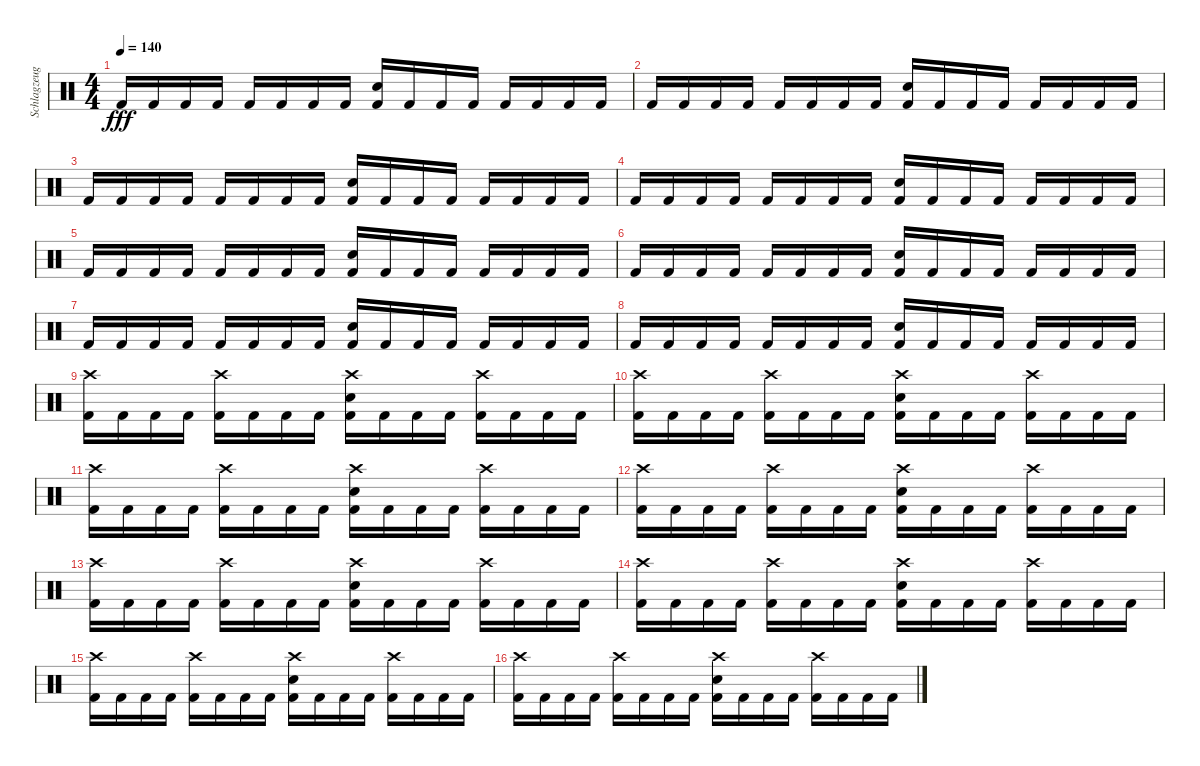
\track ("Schlagzeug" "Schlagzeug") {instrument percussion}
\staff {score}
\articulation defaults
\ts (4 4)
\tempo 140
\clef neutral
\ks c "Kick (hit) 2".16{dy fff} "Kick (hit) 2".16 "Kick (hit) 2".16 "Kick (hit) 2".16 "Kick (hit) 2".16 "Kick (hit) 2".16 "Kick (hit) 2".16 "Kick (hit) 2".16
("Kick (hit) 2" "Electric Snare (hit)").16 "Kick (hit) 2".16 "Kick (hit) 2".16 "Kick (hit) 2".16 "Kick (hit) 2".16 "Kick (hit) 2".16 "Kick (hit) 2".16 "Kick (hit) 2".16 |
"Kick (hit) 2".16 "Kick (hit) 2".16 "Kick (hit) 2".16 "Kick (hit) 2".16 "Kick (hit) 2".16 "Kick (hit) 2".16 "Kick (hit) 2".16 "Kick (hit) 2".16 ("Kick (hit) 2" "Electric Snare (hit)").16 "Kick (hit) 2".16 "Kick (hit) 2".16 "Kick (hit) 2".16 "Kick (hit) 2".16 "Kick (hit) 2".16 "Kick (hit) 2".16 "Kick (hit) 2".16 |
"Kick (hit) 2".16 "Kick (hit) 2".16 "Kick (hit) 2".16 "Kick (hit) 2".16 "Kick (hit) 2".16 "Kick (hit) 2".16 "Kick (hit) 2".16 "Kick (hit) 2".16 ("Kick (hit) 2" "Electric Snare (hit)").16 "Kick (hit) 2".16 "Kick (hit) 2".16 "Kick (hit) 2".16 "Kick (hit) 2".16 "Kick (hit) 2".16 "Kick (hit) 2".16 "Kick (hit) 2".16 |
"Kick (hit) 2".16 "Kick (hit) 2".16 "Kick (hit) 2".16 "Kick (hit) 2".16 "Kick (hit) 2".16 "Kick (hit) 2".16 "Kick (hit) 2".16 "Kick (hit) 2".16 ("Kick (hit) 2" "Electric Snare (hit)").16 "Kick (hit) 2".16 "Kick (hit) 2".16 "Kick (hit) 2".16 "Kick (hit) 2".16 "Kick (hit) 2".16 "Kick (hit) 2".16 "Kick (hit) 2".16 |
"Kick (hit) 2".16 "Kick (hit) 2".16 "Kick (hit) 2".16 "Kick (hit) 2".16 "Kick (hit) 2".16 "Kick (hit) 2".16 "Kick (hit) 2".16 "Kick (hit) 2".16 ("Kick (hit) 2" "Electric Snare (hit)").16 "Kick (hit) 2".16 "Kick (hit) 2".16 "Kick (hit) 2".16 "Kick (hit) 2".16 "Kick (hit) 2".16 "Kick (hit) 2".16 "Kick (hit) 2".16 |
"Kick (hit) 2".16 "Kick (hit) 2".16 "Kick (hit) 2".16 "Kick (hit) 2".16 "Kick (hit) 2".16 "Kick (hit) 2".16 "Kick (hit) 2".16 "Kick (hit) 2".16 ("Kick (hit) 2" "Electric Snare (hit)").16 "Kick (hit) 2".16 "Kick (hit) 2".16 "Kick (hit) 2".16 "Kick (hit) 2".16 "Kick (hit) 2".16 "Kick (hit) 2".16 "Kick (hit) 2".16 |
"Kick (hit) 2".16 "Kick (hit) 2".16 "Kick (hit) 2".16 "Kick (hit) 2".16 "Kick (hit) 2".16 "Kick (hit) 2".16 "Kick (hit) 2".16 "Kick (hit) 2".16 ("Kick (hit) 2" "Electric Snare (hit)").16 "Kick (hit) 2".16 "Kick (hit) 2".16 "Kick (hit) 2".16 "Kick (hit) 2".16 "Kick (hit) 2".16 "Kick (hit) 2".16 "Kick (hit) 2".16 |
"Kick (hit) 2".16 "Kick (hit) 2".16 "Kick (hit) 2".16 "Kick (hit) 2".16 "Kick (hit) 2".16 "Kick (hit) 2".16 "Kick (hit) 2".16 "Kick (hit) 2".16 ("Kick (hit) 2" "Electric Snare (hit)").16 "Kick (hit) 2".16 "Kick (hit) 2".16 "Kick (hit) 2".16 "Kick (hit) 2".16 "Kick (hit) 2".16 "Kick (hit) 2".16 "Kick (hit) 2".16 |
("Kick (hit) 2" "Crash high (hit)").16 "Kick (hit) 2".16 "Kick (hit) 2".16 "Kick (hit) 2".16 ("Kick (hit) 2" "Crash high (hit)").16 "Kick (hit) 2".16 "Kick (hit) 2".16 "Kick (hit) 2".16 ("Kick (hit) 2" "Electric Snare (hit)" "Crash high (hit)").16 "Kick (hit) 2".16 "Kick (hit) 2".16 "Kick (hit) 2".16 ("Kick (hit) 2" "Crash high (hit)").16 "Kick (hit) 2".16 "Kick (hit) 2".16 "Kick (hit) 2".16 |
("Kick (hit) 2" "Crash high (hit)").16 "Kick (hit) 2".16 "Kick (hit) 2".16 "Kick (hit) 2".16 ("Kick (hit) 2" "Crash high (hit)").16 "Kick (hit) 2".16 "Kick (hit) 2".16 "Kick (hit) 2".16 ("Kick (hit) 2" "Electric Snare (hit)" "Crash high (hit)").16 "Kick (hit) 2".16 "Kick (hit) 2".16 "Kick (hit) 2".16 ("Kick (hit) 2" "Crash high (hit)").16 "Kick (hit) 2".16 "Kick (hit) 2".16 "Kick (hit) 2".16 |
("Kick (hit) 2" "Crash high (hit)").16 "Kick (hit) 2".16 "Kick (hit) 2".16 "Kick (hit) 2".16 ("Kick (hit) 2" "Crash high (hit)").16 "Kick (hit) 2".16 "Kick (hit) 2".16 "Kick (hit) 2".16 ("Kick (hit) 2" "Electric Snare (hit)" "Crash high (hit)").16 "Kick (hit) 2".16 "Kick (hit) 2".16 "Kick (hit) 2".16 ("Kick (hit) 2" "Crash high (hit)").16 "Kick (hit) 2".16 "Kick (hit) 2".16 "Kick (hit) 2".16 |
("Kick (hit) 2" "Crash high (hit)").16 "Kick (hit) 2".16 "Kick (hit) 2".16 "Kick (hit) 2".16 ("Kick (hit) 2" "Crash high (hit)").16 "Kick (hit) 2".16 "Kick (hit) 2".16 "Kick (hit) 2".16 ("Kick (hit) 2" "Electric Snare (hit)" "Crash high (hit)").16 "Kick (hit) 2".16 "Kick (hit) 2".16 "Kick (hit) 2".16 ("Kick (hit) 2" "Crash high (hit)").16 "Kick (hit) 2".16 "Kick (hit) 2".16 "Kick (hit) 2".16 |
("Kick (hit) 2" "Crash high (hit)").16 "Kick (hit) 2".16 "Kick (hit) 2".16 "Kick (hit) 2".16 ("Kick (hit) 2" "Crash high (hit)").16 "Kick (hit) 2".16 "Kick (hit) 2".16 "Kick (hit) 2".16 ("Kick (hit) 2" "Electric Snare (hit)" "Crash high (hit)").16 "Kick (hit) 2".16 "Kick (hit) 2".16 "Kick (hit) 2".16 ("Kick (hit) 2" "Crash high (hit)").16 "Kick (hit) 2".16 "Kick (hit) 2".16 "Kick (hit) 2".16 |
("Kick (hit) 2" "Crash high (hit)").16 "Kick (hit) 2".16 "Kick (hit) 2".16 "Kick (hit) 2".16 ("Kick (hit) 2" "Crash high (hit)").16 "Kick (hit) 2".16 "Kick (hit) 2".16 "Kick (hit) 2".16 ("Kick (hit) 2" "Electric Snare (hit)" "Crash high (hit)").16 "Kick (hit) 2".16 "Kick (hit) 2".16 "Kick (hit) 2".16 ("Kick (hit) 2" "Crash high (hit)").16 "Kick (hit) 2".16 "Kick (hit) 2".16 "Kick (hit) 2".16 |
("Kick (hit) 2" "Crash high (hit)").16 "Kick (hit) 2".16 "Kick (hit) 2".16 "Kick (hit) 2".16 ("Kick (hit) 2" "Crash high (hit)").16 "Kick (hit) 2".16 "Kick (hit) 2".16 "Kick (hit) 2".16 ("Kick (hit) 2" "Electric Snare (hit)" "Crash high (hit)").16 "Kick (hit) 2".16 "Kick (hit) 2".16 "Kick (hit) 2".16 ("Kick (hit) 2" "Crash high (hit)").16 "Kick (hit) 2".16 "Kick (hit) 2".16 "Kick (hit) 2".16 |
("Kick (hit) 2" "Crash high (hit)").16 "Kick (hit) 2".16 "Kick (hit) 2".16 "Kick (hit) 2".16 ("Kick (hit) 2" "Crash high (hit)").16 "Kick (hit) 2".16 "Kick (hit) 2".16 "Kick (hit) 2".16 ("Kick (hit) 2" "Electric Snare (hit)" "Crash high (hit)").16 "Kick (hit) 2".16 "Kick (hit) 2".16 "Kick (hit) 2".16 ("Kick (hit) 2" "Crash high (hit)").16 "Kick (hit) 2".16 "Kick (hit) 2".16 "Kick (hit) 2".16
